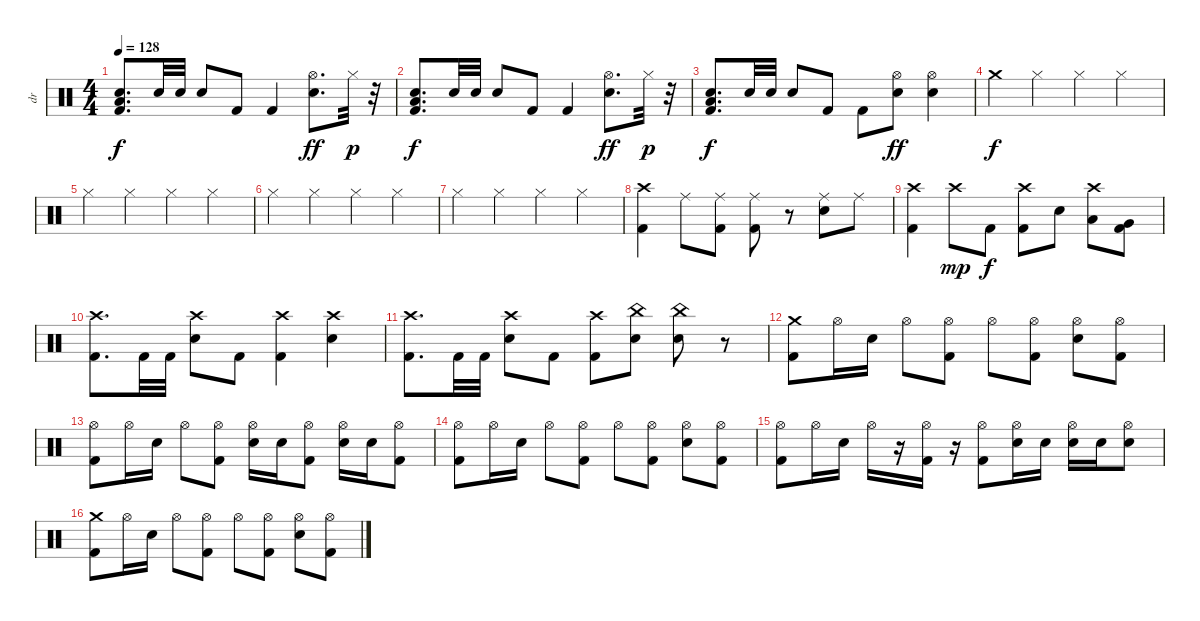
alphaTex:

\track ("dr" "dr") {instrument percussion}
\staff {score}
\articulation defaults
\ts (4 4)
\tempo 128
\clef neutral
\ks c
("Electric Snare (hit)" "Low Floor Tom (hit)" "Kick (hit) 2").8{d dy f} "Electric Snare (hit)".32 "Electric Snare (hit)".32 "Electric Snare (hit)".8 "Kick (hit) 2".8 "Kick (hit) 2".4 ("Hi-Hat (open)" "Electric Snare (hit)").8{d dy ff} "Hi-Hat (closed)".32{dy p} r.32 |
("Electric Snare (hit)" "Low Floor Tom (hit)" "Kick (hit) 2").8{d dy f} "Electric Snare (hit)".32 "Electric Snare (hit)".32 "Electric Snare (hit)".8 "Kick (hit) 2".8 "Kick (hit) 2".4 ("Hi-Hat (open)" "Electric Snare (hit)").8{d dy ff} "Hi-Hat (closed)".32{dy p} r.32 |
("Electric Snare (hit)" "Low Floor Tom (hit)" "Kick (hit) 2").8{d dy f} "Electric Snare (hit)".32 "Electric Snare (hit)".32 "Electric Snare (hit)".8 "Kick (hit) 2".8 "Kick (hit) 2".8 ("Hi-Hat (open)" "Electric Snare (hit)").8{dy ff} ("Hi-Hat (open)" "Electric Snare (hit)").4 |
"Crash medium (hit)".4{dy f} "Hi-Hat (closed)".4 "Hi-Hat (closed)".4 "Hi-Hat (closed)".4 |
"Hi-Hat (closed)".4 "Hi-Hat (closed)".4 "Hi-Hat (closed)".4 "Hi-Hat (closed)".4 |
"Hi-Hat (closed)".4 "Hi-Hat (closed)".4 "Hi-Hat (closed)".4 "Hi-Hat (closed)".4 |
"Hi-Hat (closed)".4 "Hi-Hat (closed)".4 "Hi-Hat (closed)".4 "Hi-Hat (closed)".4 |
("Crash high (hit)" "Kick (hit) 2").4 "Ride (middle)".8 ("Ride (middle)" "Kick (hit) 2").8 ("Ride (middle)" "Kick (hit) 2").8 r.8 ("Ride (middle)" "Electric Snare (hit)").8 "Ride (middle)".8 |
("Crash high (hit)" "Kick (hit) 2").4 "Crash high (hit)".8{dy mp} "Kick (hit) 2".8{dy f} ("Crash high (hit)" "Kick (hit) 2").8 "Electric Snare (hit)".8 ("Crash high (hit)" "Low Tom (hit)").8 ("Very Low Tom (hit)" "Kick (hit) 2").8 |
("Crash high (hit)" "Kick (hit) 2").8{d} "Kick (hit) 2".32 "Kick (hit) 2".32 ("Crash high (hit)" "Electric Snare (hit)").8 "Kick (hit) 2".8 ("Crash high (hit)" "Kick (hit) 2").4 ("Crash high (hit)" "Electric Snare (hit)").4 |
("Crash high (hit)" "Kick (hit) 2").8{d} "Kick (hit) 2".32 "Kick (hit) 2".32 ("Crash high (hit)" "Electric Snare (hit)").8 "Kick (hit) 2".8 ("Crash high (hit)" "Kick (hit) 2").8 ("China (hit)" "Electric Snare (hit)").8 ("China (hit)" "Electric Snare (hit)").8 r.8 |
("Crash medium (hit)" "Kick (hit) 2").8 "Hi-Hat (open)".16 "Electric Snare (hit)".16 "Hi-Hat (open)".8 ("Hi-Hat (open)" "Kick (hit) 2").8 "Hi-Hat (open)".8 ("Hi-Hat (open)" "Kick (hit) 2").8 ("Hi-Hat (open)" "Electric Snare (hit)").8 ("Hi-Hat (open)" "Kick (hit) 2").8 |
("Hi-Hat (open)" "Kick (hit) 2").8 "Hi-Hat (open)".16 "Electric Snare (hit)".16 "Hi-Hat (open)".8 ("Hi-Hat (open)" "Kick (hit) 2").8 ("Hi-Hat (open)" "Electric Snare (hit)").16 "Electric Snare (hit)".16 ("Hi-Hat (open)" "Kick (hit) 2").8 ("Hi-Hat (open)" "Electric Snare (hit)").16 "Electric Snare (hit)".16 ("Hi-Hat (open)" "Kick (hit) 2").8 |
("Hi-Hat (open)" "Kick (hit) 2").8 "Hi-Hat (open)".16 "Electric Snare (hit)".16 "Hi-Hat (open)".8 ("Hi-Hat (open)" "Kick (hit) 2").8 "Hi-Hat (open)".8 ("Hi-Hat (open)" "Kick (hit) 2").8 ("Hi-Hat (open)" "Electric Snare (hit)").8 ("Hi-Hat (open)" "Kick (hit) 2").8 |
("Hi-Hat (open)" "Kick (hit) 2").8 "Hi-Hat (open)".16 "Electric Snare (hit)".16 "Hi-Hat (open)".16 r.16 ("Hi-Hat (open)" "Kick (hit) 2").16 r.16 ("Hi-Hat (open)" "Kick (hit) 2").8 ("Hi-Hat (open)" "Electric Snare (hit)").16 "Electric Snare (hit)".16 ("Hi-Hat (open)" "Electric Snare (hit)").16 "Electric Snare (hit)".16 ("Hi-Hat (open)" "Electric Snare (hit)").8 |
("Crash medium (hit)" "Kick (hit) 2").8 "Hi-Hat (open)".16 "Electric Snare (hit)".16 "Hi-Hat (open)".8 ("Hi-Hat (open)" "Kick (hit) 2").8 "Hi-Hat (open)".8 ("Hi-Hat (open)" "Kick (hit) 2").8 ("Hi-Hat (open)" "Electric Snare (hit)").8 ("Hi-Hat (open)" "Kick (hit) 2").8
